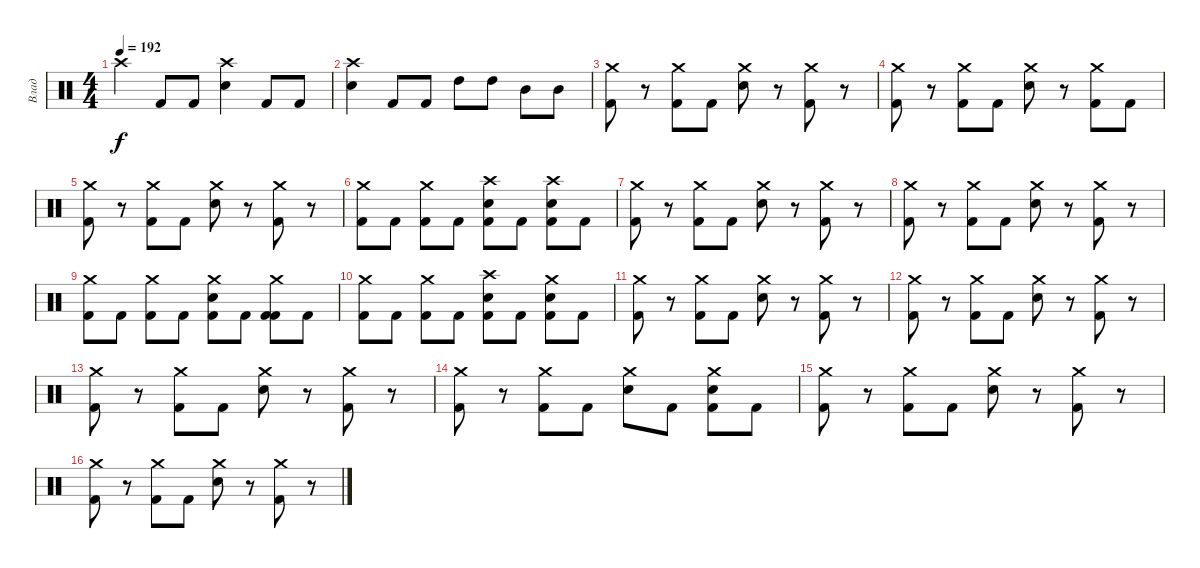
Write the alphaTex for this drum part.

\track ("Влад" "Влад") {instrument percussion}
\staff {score}
\articulation defaults
\ts (4 4)
\tempo 192
\clef neutral
\ks c "Crash high (hit)".4{dy f} "Kick (hit) 2".8 "Kick (hit) 2".8
("Crash high (hit)" "Snare (hit) 2").4 "Kick (hit) 2".8 "Kick (hit) 2".8 |
("Crash high (hit)" "Snare (hit) 2").4 "Kick (hit) 2".8 "Kick (hit) 2".8 "High Tom (hit)".8 "High Tom (hit)".8 "Mid Tom (hit)".8 "Mid Tom (hit)".8 |
("Crash medium (hit)" "Kick (hit) 2").8 r.8 ("Crash medium (hit)" "Kick (hit) 2").8 "Kick (hit) 2".8 ("Crash medium (hit)" "Snare (hit) 2").8 r.8 ("Crash medium (hit)" "Kick (hit) 2").8 r.8 |
("Crash medium (hit)" "Kick (hit) 2").8 r.8 ("Crash medium (hit)" "Kick (hit) 2").8 "Kick (hit) 2".8 ("Crash medium (hit)" "Snare (hit) 2").8 r.8 ("Crash medium (hit)" "Kick (hit) 2").8 "Kick (hit) 2".8 |
("Crash medium (hit)" "Kick (hit) 2").8 r.8 ("Crash medium (hit)" "Kick (hit) 2").8 "Kick (hit) 2".8 ("Crash medium (hit)" "Snare (hit) 2").8 r.8 ("Crash medium (hit)" "Kick (hit) 2").8 r.8 |
("Crash medium (hit)" "Kick (hit) 2").8 "Kick (hit) 2".8 ("Crash medium (hit)" "Kick (hit) 2").8 "Kick (hit) 2".8 ("Crash high (hit)" "Kick (hit) 2" "Snare (hit) 2").8 "Kick (hit) 2".8 ("Crash high (hit)" "Kick (hit) 2" "Snare (hit) 2").8 "Kick (hit) 2".8 |
("Crash medium (hit)" "Kick (hit) 2").8 r.8 ("Crash medium (hit)" "Kick (hit) 2").8 "Kick (hit) 2".8 ("Crash medium (hit)" "Snare (hit) 2").8 r.8 ("Crash medium (hit)" "Kick (hit) 2").8 r.8 |
("Crash medium (hit)" "Kick (hit) 2").8 r.8 ("Crash medium (hit)" "Kick (hit) 2").8 "Kick (hit) 2".8 ("Crash medium (hit)" "Snare (hit) 2").8 r.8 ("Crash medium (hit)" "Kick (hit) 2").8 r.8 |
("Crash medium (hit)" "Kick (hit) 2").8 "Kick (hit) 2".8 ("Crash medium (hit)" "Kick (hit) 2").8 "Kick (hit) 2".8 ("Crash medium (hit)" "Kick (hit) 2" "Snare (hit) 2").8 "Kick (hit) 2".8 ("Crash medium (hit)" "Kick (hit) 2" "Kick (hit) 2").8 "Kick (hit) 2".8 |
("Crash medium (hit)" "Kick (hit) 2").8 "Kick (hit) 2".8 ("Crash medium (hit)" "Kick (hit) 2").8 "Kick (hit) 2".8 ("Crash high (hit)" "Kick (hit) 2"{tr (36 16)} "Snare (hit) 2").8 "Kick (hit) 2"{tr (36 16)}.8 ("Crash medium (hit)" "Kick (hit) 2"{tr (36 16)} "Snare (hit) 2").8 "Kick (hit) 2"{tr (36 16)}.8 |
("Crash medium (hit)" "Kick (hit) 2").8 r.8 ("Crash medium (hit)" "Kick (hit) 2").8 "Kick (hit) 2".8 ("Crash medium (hit)" "Snare (hit) 2").8 r.8 ("Crash medium (hit)" "Kick (hit) 2").8 r.8 |
("Crash medium (hit)" "Kick (hit) 2").8 r.8 ("Crash medium (hit)" "Kick (hit) 2").8 "Kick (hit) 2".8 ("Crash medium (hit)" "Snare (hit) 2").8 r.8 ("Crash medium (hit)" "Kick (hit) 2").8 r.8 |
("Crash medium (hit)" "Kick (hit) 2").8 r.8 ("Crash medium (hit)" "Kick (hit) 2").8 "Kick (hit) 2".8 ("Crash medium (hit)" "Snare (hit) 2").8 r.8 ("Crash medium (hit)" "Kick (hit) 2").8 r.8 |
("Crash medium (hit)" "Kick (hit) 2").8 r.8 ("Crash medium (hit)" "Kick (hit) 2").8 "Kick (hit) 2".8 ("Crash medium (hit)" "Snare (hit) 2").8 "Kick (hit) 2".8 ("Crash medium (hit)" "Kick (hit) 2" "Snare (hit) 2").8 "Kick (hit) 2".8 |
("Crash medium (hit)" "Kick (hit) 2").8 r.8 ("Crash medium (hit)" "Kick (hit) 2").8 "Kick (hit) 2".8 ("Crash medium (hit)" "Snare (hit) 2").8 r.8 ("Crash medium (hit)" "Kick (hit) 2").8 r.8 |
("Crash medium (hit)" "Kick (hit) 2").8 r.8 ("Crash medium (hit)" "Kick (hit) 2").8 "Kick (hit) 2".8 ("Crash medium (hit)" "Snare (hit) 2").8 r.8 ("Crash medium (hit)" "Kick (hit) 2").8 r.8
